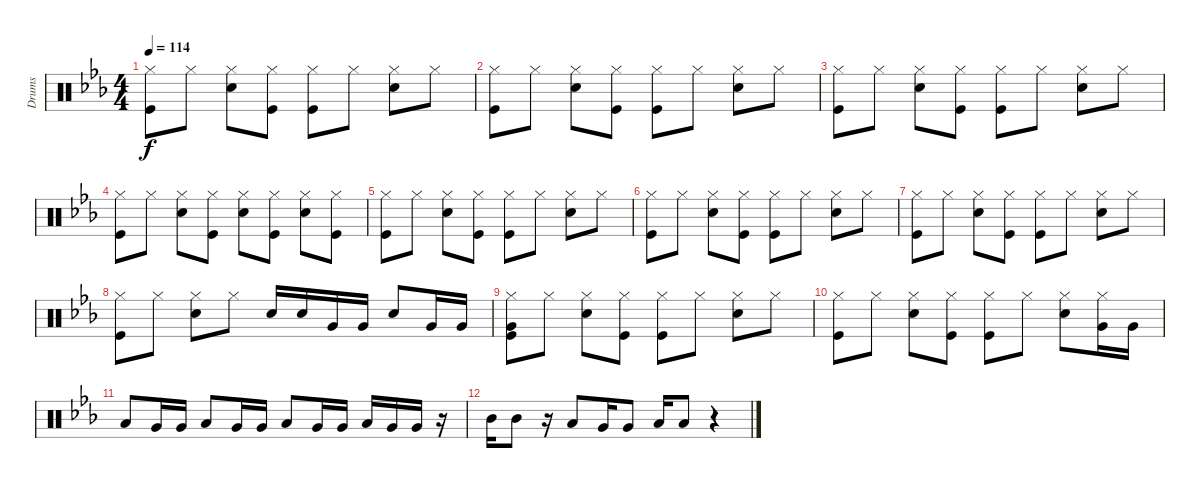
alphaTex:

\track ("Drums" "Drums") {instrument percussion}
\staff {score}
\articulation defaults
\ts (4 4)
\tempo 114
\clef neutral
\ks cminor
("Hi-Hat (closed)" "Kick (hit)").8{dy f} "Hi-Hat (closed)".8 ("Hi-Hat (closed)" "Electric Snare (hit)").8 ("Hi-Hat (closed)" "Kick (hit)").8 ("Hi-Hat (closed)" "Kick (hit)").8 "Hi-Hat (closed)".8 ("Hi-Hat (closed)" "Electric Snare (hit)").8 "Hi-Hat (closed)".8 |
("Hi-Hat (closed)" "Kick (hit)").8 "Hi-Hat (closed)".8 ("Hi-Hat (closed)" "Electric Snare (hit)").8 ("Hi-Hat (closed)" "Kick (hit)").8 ("Hi-Hat (closed)" "Kick (hit)").8 "Hi-Hat (closed)".8 ("Hi-Hat (closed)" "Electric Snare (hit)").8 "Hi-Hat (closed)".8 |
("Hi-Hat (closed)" "Kick (hit)").8 "Hi-Hat (closed)".8 ("Hi-Hat (closed)" "Electric Snare (hit)").8 ("Hi-Hat (closed)" "Kick (hit)").8 ("Hi-Hat (closed)" "Kick (hit)").8 "Hi-Hat (closed)".8 ("Hi-Hat (closed)" "Electric Snare (hit)").8 "Hi-Hat (closed)".8 |
("Hi-Hat (closed)" "Kick (hit)").8 "Hi-Hat (closed)".8 ("Hi-Hat (closed)" "Electric Snare (hit)").8 ("Hi-Hat (closed)" "Kick (hit)").8 ("Hi-Hat (closed)" "Electric Snare (hit)").8 ("Hi-Hat (closed)" "Kick (hit)").8 ("Hi-Hat (closed)" "Electric Snare (hit)").8 ("Hi-Hat (closed)" "Kick (hit)").8 |
("Hi-Hat (closed)" "Kick (hit)").8 "Hi-Hat (closed)".8 ("Hi-Hat (closed)" "Electric Snare (hit)").8 ("Hi-Hat (closed)" "Kick (hit)").8 ("Hi-Hat (closed)" "Kick (hit)").8 "Hi-Hat (closed)".8 ("Hi-Hat (closed)" "Electric Snare (hit)").8 "Hi-Hat (closed)".8 |
("Hi-Hat (closed)" "Kick (hit)").8 "Hi-Hat (closed)".8 ("Hi-Hat (closed)" "Electric Snare (hit)").8 ("Hi-Hat (closed)" "Kick (hit)").8 ("Hi-Hat (closed)" "Kick (hit)").8 "Hi-Hat (closed)".8 ("Hi-Hat (closed)" "Electric Snare (hit)").8 "Hi-Hat (closed)".8 |
("Hi-Hat (closed)" "Kick (hit)").8 "Hi-Hat (closed)".8 ("Hi-Hat (closed)" "Electric Snare (hit)").8 ("Hi-Hat (closed)" "Kick (hit)").8 ("Hi-Hat (closed)" "Kick (hit)").8 "Hi-Hat (closed)".8 ("Hi-Hat (closed)" "Electric Snare (hit)").8 "Hi-Hat (closed)".8 |
("Hi-Hat (closed)" "Kick (hit)").8 "Hi-Hat (closed)".8 ("Hi-Hat (closed)" "Electric Snare (hit)").8 "Hi-Hat (closed)".8 "Electric Snare (hit)".16 "Electric Snare (hit)".16 "Very Low Tom (hit)".16 "Very Low Tom (hit)".16 "Electric Snare (hit)".8 "Very Low Tom (hit)".16 "Very Low Tom (hit)".16 |
("Hi-Hat (closed)" "Very Low Tom (hit)" "Kick (hit)").8{volume 0} "Hi-Hat (closed)".8 ("Hi-Hat (closed)" "Electric Snare (hit)").8 ("Hi-Hat (closed)" "Kick (hit)").8 ("Hi-Hat (closed)" "Kick (hit)").8 "Hi-Hat (closed)".8 ("Hi-Hat (closed)" "Electric Snare (hit)").8 "Hi-Hat (closed)".8 |
("Hi-Hat (closed)" "Kick (hit)").8 "Hi-Hat (closed)".8 ("Hi-Hat (closed)" "Electric Snare (hit)").8 ("Hi-Hat (closed)" "Kick (hit)").8 ("Hi-Hat (closed)" "Kick (hit)").8 "Hi-Hat (closed)".8 ("Hi-Hat (closed)" "Electric Snare (hit)").8 ("Hi-Hat (closed)" "Very Low Tom (hit)").16 "Very Low Tom (hit)".16 |
"Low Floor Tom (hit)".8 "Very Low Tom (hit)".16 "Very Low Tom (hit)".16 "Low Floor Tom (hit)".8 "Very Low Tom (hit)".16 "Very Low Tom (hit)".16 "Low Floor Tom (hit)".8 "Very Low Tom (hit)".16 "Very Low Tom (hit)".16 "Low Floor Tom (hit)".16 "Very Low Tom (hit)".16 "Very Low Tom (hit)".16 r.16 |
"Mid Tom (hit)".16 "Mid Tom (hit)".8 r.16 "Low Tom (hit)".8 "Very Low Tom (hit)".16 "Very Low Tom (hit)".8 "Low Floor Tom (hit)".16 "Low Floor Tom (hit)".8 r.4
